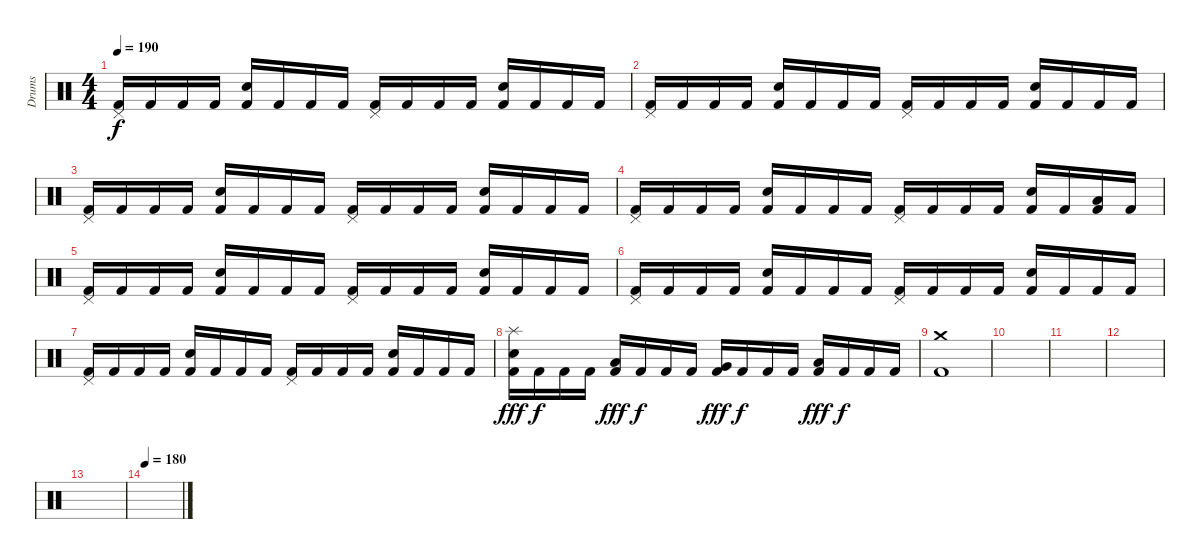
\track ("Drums" "Drums") {instrument percussion}
\staff {score}
\articulation defaults
\ts (4 4)
\tempo 190
\clef neutral
\ks c
("Pedal Hi-Hat (hit)" "Kick (hit) 2").16{dy f} "Kick (hit) 2".16 "Kick (hit) 2".16 "Kick (hit) 2".16 ("Electric Snare (hit)" "Kick (hit) 2").16 "Kick (hit) 2".16 "Kick (hit) 2".16 "Kick (hit) 2".16 ("Pedal Hi-Hat (hit)" "Kick (hit) 2").16 "Kick (hit) 2".16 "Kick (hit) 2".16 "Kick (hit) 2".16 ("Electric Snare (hit)" "Kick (hit) 2").16 "Kick (hit) 2".16 "Kick (hit) 2".16 "Kick (hit) 2".16 |
("Pedal Hi-Hat (hit)" "Kick (hit) 2").16 "Kick (hit) 2".16 "Kick (hit) 2".16 "Kick (hit) 2".16 ("Electric Snare (hit)" "Kick (hit) 2").16 "Kick (hit) 2".16 "Kick (hit) 2".16 "Kick (hit) 2".16 ("Pedal Hi-Hat (hit)" "Kick (hit) 2").16 "Kick (hit) 2".16 "Kick (hit) 2".16 "Kick (hit) 2".16 ("Electric Snare (hit)" "Kick (hit) 2").16 "Kick (hit) 2".16 "Kick (hit) 2".16 "Kick (hit) 2".16 |
("Pedal Hi-Hat (hit)" "Kick (hit) 2").16 "Kick (hit) 2".16 "Kick (hit) 2".16 "Kick (hit) 2".16 ("Electric Snare (hit)" "Kick (hit) 2").16 "Kick (hit) 2".16 "Kick (hit) 2".16 "Kick (hit) 2".16 ("Pedal Hi-Hat (hit)" "Kick (hit) 2").16 "Kick (hit) 2".16 "Kick (hit) 2".16 "Kick (hit) 2".16 ("Electric Snare (hit)" "Kick (hit) 2").16 "Kick (hit) 2".16 "Kick (hit) 2".16 "Kick (hit) 2".16 |
("Pedal Hi-Hat (hit)" "Kick (hit) 2").16 "Kick (hit) 2".16 "Kick (hit) 2".16 "Kick (hit) 2".16 ("Electric Snare (hit)" "Kick (hit) 2").16 "Kick (hit) 2".16 "Kick (hit) 2".16 "Kick (hit) 2".16 ("Pedal Hi-Hat (hit)" "Kick (hit) 2").16 "Kick (hit) 2".16 "Kick (hit) 2".16 "Kick (hit) 2".16 ("Electric Snare (hit)" "Kick (hit) 2").16 "Kick (hit) 2".16 ("Low Tom (hit)" "Kick (hit) 2").16 "Kick (hit) 2".16 |
("Pedal Hi-Hat (hit)" "Kick (hit) 2").16 "Kick (hit) 2".16 "Kick (hit) 2".16 "Kick (hit) 2".16 ("Electric Snare (hit)" "Kick (hit) 2").16 "Kick (hit) 2".16 "Kick (hit) 2".16 "Kick (hit) 2".16 ("Pedal Hi-Hat (hit)" "Kick (hit) 2").16 "Kick (hit) 2".16 "Kick (hit) 2".16 "Kick (hit) 2".16 ("Electric Snare (hit)" "Kick (hit) 2").16 "Kick (hit) 2".16 "Kick (hit) 2".16 "Kick (hit) 2".16 |
("Pedal Hi-Hat (hit)" "Kick (hit) 2").16 "Kick (hit) 2".16 "Kick (hit) 2".16 "Kick (hit) 2".16 ("Electric Snare (hit)" "Kick (hit) 2").16 "Kick (hit) 2".16 "Kick (hit) 2".16 "Kick (hit) 2".16 ("Pedal Hi-Hat (hit)" "Kick (hit) 2").16 "Kick (hit) 2".16 "Kick (hit) 2".16 "Kick (hit) 2".16 ("Electric Snare (hit)" "Kick (hit) 2").16 "Kick (hit) 2".16 "Kick (hit) 2".16 "Kick (hit) 2".16 |
("Pedal Hi-Hat (hit)" "Kick (hit) 2").16 "Kick (hit) 2".16 "Kick (hit) 2".16 "Kick (hit) 2".16 ("Electric Snare (hit)" "Kick (hit) 2").16 "Kick (hit) 2".16 "Kick (hit) 2".16 "Kick (hit) 2".16 ("Pedal Hi-Hat (hit)" "Kick (hit) 2").16 "Kick (hit) 2".16 "Kick (hit) 2".16 "Kick (hit) 2".16 ("Electric Snare (hit)" "Kick (hit) 2").16 "Kick (hit) 2".16 "Kick (hit) 2".16 "Kick (hit) 2".16 |
("Splash (hit)" "Electric Snare (hit)" "Kick (hit) 2").16{dy fff} "Kick (hit) 2".16{dy f} "Kick (hit) 2".16 "Kick (hit) 2".16 ("Low Tom (hit)" "Kick (hit) 2").16{dy fff} "Kick (hit) 2".16{dy f} "Kick (hit) 2".16 "Kick (hit) 2".16 ("Very Low Tom (hit)" "Kick (hit) 2").16{dy fff} "Kick (hit) 2".16{dy f} "Kick (hit) 2".16 "Kick (hit) 2".16 ("Low Floor Tom (hit)" "Kick (hit) 2").16{dy fff} "Kick (hit) 2".16{dy f} "Kick (hit) 2".16 "Kick (hit) 2".16 |
("Crash medium (hit)" "Kick (hit) 2").1 |
|
|
|
|
\tempo 180
